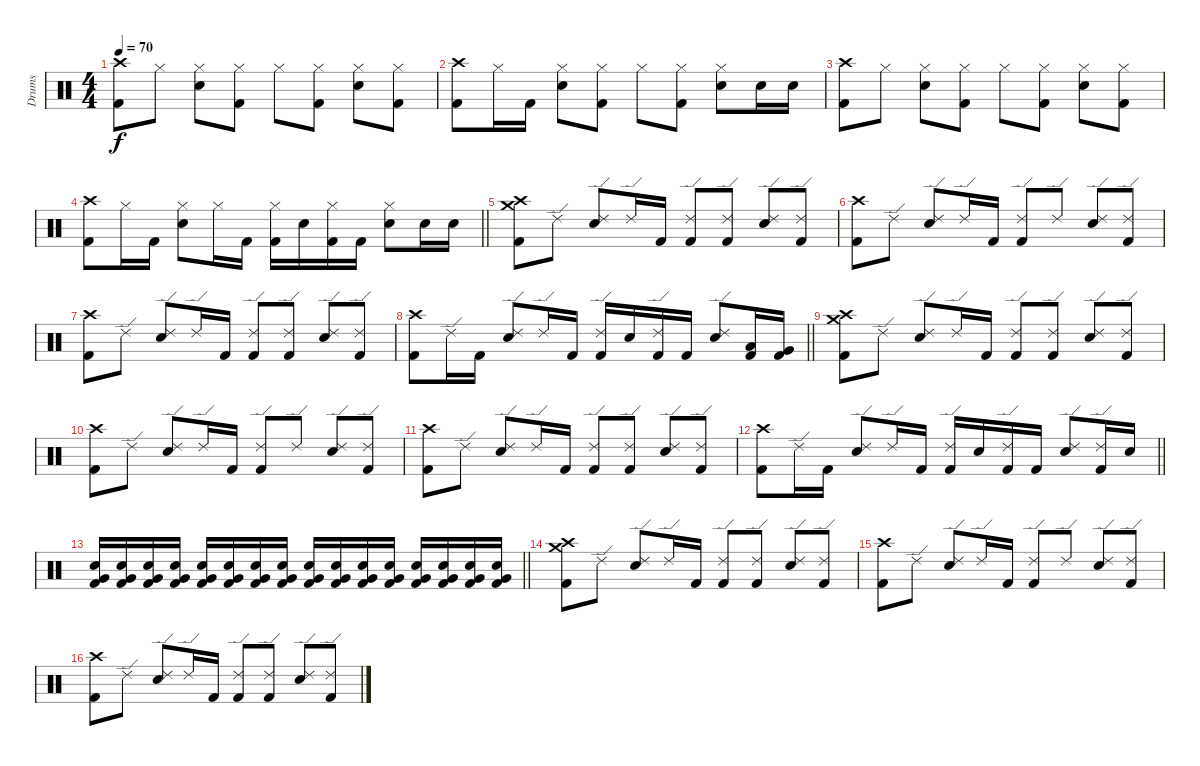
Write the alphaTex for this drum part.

\track ("Drums" "Drums") {instrument percussion}
\staff {score}
\articulation defaults
\ts (4 4)
\tempo 70
\clef neutral
\ks c
("Crash high (hit)" "Kick (hit) 2").8{dy f} "Hi-Hat (closed)".8 ("Hi-Hat (closed)" "Snare (hit) 2").8 ("Hi-Hat (closed)" "Kick (hit) 2").8 "Hi-Hat (closed)".8 ("Hi-Hat (closed)" "Kick (hit) 2").8 ("Hi-Hat (closed)" "Snare (hit) 2").8 ("Hi-Hat (closed)" "Kick (hit) 2").8 |
("Crash high (hit)" "Kick (hit) 2").8 "Hi-Hat (closed)".16 "Kick (hit) 2".16 ("Hi-Hat (closed)" "Snare (hit) 2").8 ("Hi-Hat (closed)" "Kick (hit) 2").8 "Hi-Hat (closed)".8 ("Hi-Hat (closed)" "Kick (hit) 2").8 ("Hi-Hat (closed)" "Snare (hit) 2").8 "Snare (hit) 2".16 "Snare (hit) 2".16 |
("Crash high (hit)" "Kick (hit) 2").8 "Hi-Hat (closed)".8 ("Hi-Hat (closed)" "Snare (hit) 2").8 ("Hi-Hat (closed)" "Kick (hit) 2").8 "Hi-Hat (closed)".8 ("Hi-Hat (closed)" "Kick (hit) 2").8 ("Hi-Hat (closed)" "Snare (hit) 2").8 ("Hi-Hat (closed)" "Kick (hit) 2").8 |
\barLineRight lightlight
("Crash high (hit)" "Kick (hit) 2").8 "Hi-Hat (closed)".16 "Kick (hit) 2".16 ("Hi-Hat (closed)" "Snare (hit) 2").8 "Hi-Hat (closed)".16 "Kick (hit) 2".16 ("Hi-Hat (closed)" "Kick (hit) 2").16 "Snare (hit) 2".16 ("Hi-Hat (closed)" "Kick (hit) 2").16 "Kick (hit) 2".16 ("Hi-Hat (closed)" "Snare (hit) 2").8 "Snare (hit) 2".16 "Snare (hit) 2".16 |
("Crash high (hit)" "Crash medium (hit)" "Kick (hit) 2").8 "Ride (edge) 2".8 ("Ride (edge) 2" "Snare (hit) 2").8 "Ride (edge) 2".16 "Kick (hit) 2".16 ("Ride (edge) 2" "Kick (hit) 2").8 ("Ride (edge) 2" "Kick (hit) 2").8 ("Ride (edge) 2" "Snare (hit) 2").8 ("Ride (edge) 2" "Kick (hit) 2").8 |
("Crash high (hit)" "Kick (hit) 2").8 "Ride (edge) 2".8 ("Ride (edge) 2" "Snare (hit) 2").8 "Ride (edge) 2".16 "Kick (hit) 2".16 ("Ride (edge) 2" "Kick (hit) 2").8 "Ride (edge) 2".8 ("Ride (edge) 2" "Snare (hit) 2").8 ("Ride (edge) 2" "Kick (hit) 2").8 |
("Crash high (hit)" "Kick (hit) 2").8 "Ride (edge) 2".8 ("Ride (edge) 2" "Snare (hit) 2").8 "Ride (edge) 2".16 "Kick (hit) 2".16 ("Ride (edge) 2" "Kick (hit) 2").8 ("Ride (edge) 2" "Kick (hit) 2").8 ("Ride (edge) 2" "Snare (hit) 2").8 ("Ride (edge) 2" "Kick (hit) 2").8 |
\barLineRight lightlight
("Crash high (hit)" "Kick (hit) 2").8 "Ride (edge) 2".16 "Kick (hit) 2".16 ("Ride (edge) 2" "Snare (hit) 2").8 "Ride (edge) 2".16 "Kick (hit) 2".16 ("Ride (edge) 2" "Kick (hit) 2").16 "Snare (hit) 2".16 ("Ride (edge) 2" "Kick (hit) 2").16 "Kick (hit) 2".16 ("Ride (edge) 2" "Snare (hit) 2").8 ("Low Tom (hit)" "Kick (hit) 2").16 ("Very Low Tom (hit)" "Kick (hit) 2").16 |
("Crash high (hit)" "Crash medium (hit)" "Kick (hit) 2").8 "Ride (edge) 2".8 ("Ride (edge) 2" "Snare (hit) 2").8 "Ride (edge) 2".16 "Kick (hit) 2".16 ("Ride (edge) 2" "Kick (hit) 2").8 ("Ride (edge) 2" "Kick (hit) 2").8 ("Ride (edge) 2" "Snare (hit) 2").8 ("Ride (edge) 2" "Kick (hit) 2").8 |
("Crash high (hit)" "Kick (hit) 2").8 "Ride (edge) 2".8 ("Ride (edge) 2" "Snare (hit) 2").8 "Ride (edge) 2".16 "Kick (hit) 2".16 ("Ride (edge) 2" "Kick (hit) 2").8 "Ride (edge) 2".8 ("Ride (edge) 2" "Snare (hit) 2").8 ("Ride (edge) 2" "Kick (hit) 2").8 |
("Crash high (hit)" "Kick (hit) 2").8 "Ride (edge) 2".8 ("Ride (edge) 2" "Snare (hit) 2").8 "Ride (edge) 2".16 "Kick (hit) 2".16 ("Ride (edge) 2" "Kick (hit) 2").8 ("Ride (edge) 2" "Kick (hit) 2").8 ("Ride (edge) 2" "Snare (hit) 2").8 ("Ride (edge) 2" "Kick (hit) 2").8 |
\barLineRight lightlight
("Crash high (hit)" "Kick (hit) 2").8 "Ride (edge) 2".16 "Kick (hit) 2".16 ("Ride (edge) 2" "Snare (hit) 2").8 "Ride (edge) 2".16 "Kick (hit) 2".16 ("Ride (edge) 2" "Kick (hit) 2").16 "Snare (hit) 2".16 ("Ride (edge) 2" "Kick (hit) 2").16 "Kick (hit) 2".16 ("Ride (edge) 2" "Snare (hit) 2").8 ("Ride (edge) 2" "Kick (hit) 2").16 "Snare (hit) 2".16 |
\barLineRight lightlight
("Very Low Tom (hit)" "Snare (hit) 2" "Kick (hit) 2").16 ("Very Low Tom (hit)" "Snare (hit) 2" "Kick (hit) 2").16 ("Very Low Tom (hit)" "Snare (hit) 2" "Kick (hit) 2").16 ("Very Low Tom (hit)" "Snare (hit) 2" "Kick (hit) 2").16 ("Very Low Tom (hit)" "Snare (hit) 2" "Kick (hit) 2").16 ("Very Low Tom (hit)" "Snare (hit) 2" "Kick (hit) 2").16 ("Very Low Tom (hit)" "Snare (hit) 2" "Kick (hit) 2").16 ("Very Low Tom (hit)" "Snare (hit) 2" "Kick (hit) 2").16 ("Very Low Tom (hit)" "Snare (hit) 2" "Kick (hit) 2").16 ("Very Low Tom (hit)" "Snare (hit) 2" "Kick (hit) 2").16 ("Very Low Tom (hit)" "Snare (hit) 2" "Kick (hit) 2").16 ("Very Low Tom (hit)" "Snare (hit) 2" "Kick (hit) 2").16 ("Very Low Tom (hit)" "Snare (hit) 2" "Kick (hit) 2").16 ("Very Low Tom (hit)" "Snare (hit) 2" "Kick (hit) 2").16 ("Very Low Tom (hit)" "Snare (hit) 2" "Kick (hit) 2").16 ("Very Low Tom (hit)" "Snare (hit) 2" "Kick (hit) 2").16 |
("Crash high (hit)" "Crash medium (hit)" "Kick (hit) 2").8 "Ride (edge) 2".8 ("Ride (edge) 2" "Snare (hit) 2").8 "Ride (edge) 2".16 "Kick (hit) 2".16 ("Ride (edge) 2" "Kick (hit) 2").8 ("Ride (edge) 2" "Kick (hit) 2").8 ("Ride (edge) 2" "Snare (hit) 2").8 ("Ride (edge) 2" "Kick (hit) 2").8 |
("Crash high (hit)" "Kick (hit) 2").8 "Ride (edge) 2".8 ("Ride (edge) 2" "Snare (hit) 2").8 "Ride (edge) 2".16 "Kick (hit) 2".16 ("Ride (edge) 2" "Kick (hit) 2").8 "Ride (edge) 2".8 ("Ride (edge) 2" "Snare (hit) 2").8 ("Ride (edge) 2" "Kick (hit) 2").8 |
("Crash high (hit)" "Kick (hit) 2").8 "Ride (edge) 2".8 ("Ride (edge) 2" "Snare (hit) 2").8 "Ride (edge) 2".16 "Kick (hit) 2".16 ("Ride (edge) 2" "Kick (hit) 2").8 ("Ride (edge) 2" "Kick (hit) 2").8 ("Ride (edge) 2" "Snare (hit) 2").8 ("Ride (edge) 2" "Kick (hit) 2").8
